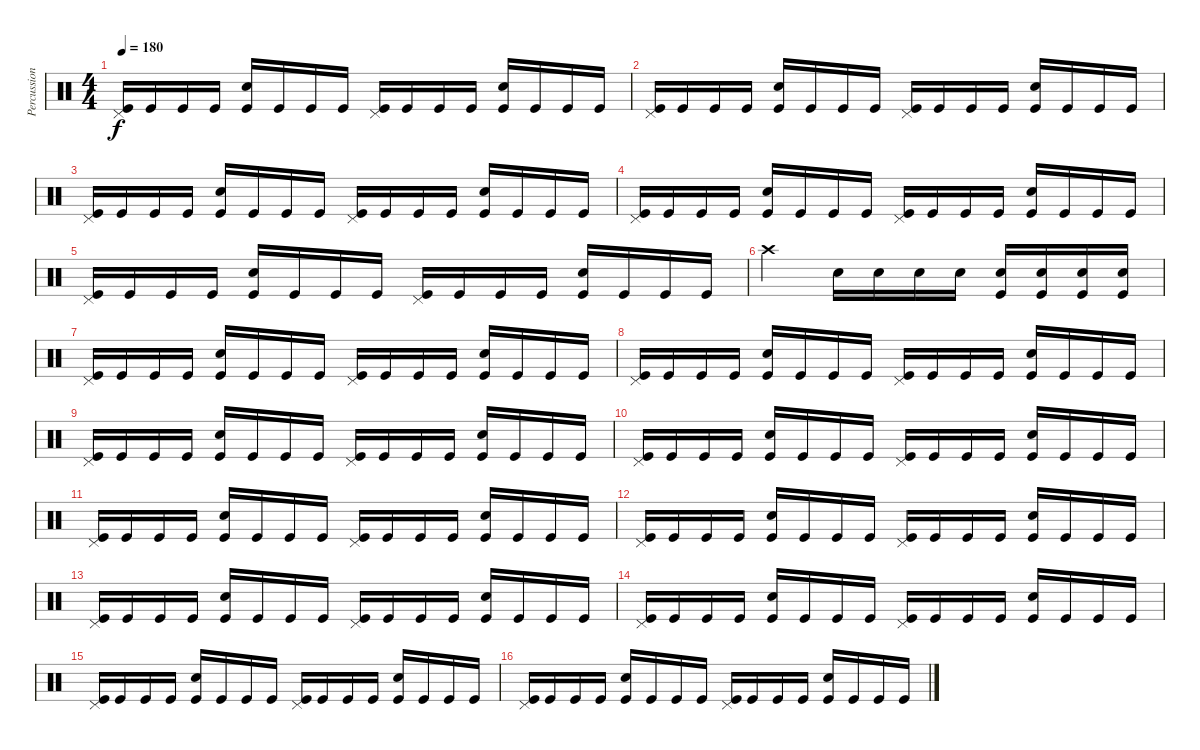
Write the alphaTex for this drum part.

\track ("Percussion" "Percussion") {instrument percussion}
\staff {score}
\articulation defaults
\ts (4 4)
\tempo 180
\clef neutral
\ks c
("Pedal Hi-Hat (hit)" "Kick (hit)").16{dy f} "Kick (hit)".16 "Kick (hit)".16 "Kick (hit)".16 ("Electric Snare (hit)" "Kick (hit)").16 "Kick (hit)".16 "Kick (hit)".16 "Kick (hit)".16 ("Pedal Hi-Hat (hit)" "Kick (hit)").16 "Kick (hit)".16 "Kick (hit)".16 "Kick (hit)".16 ("Electric Snare (hit)" "Kick (hit)").16 "Kick (hit)".16 "Kick (hit)".16 "Kick (hit)".16 |
("Pedal Hi-Hat (hit)" "Kick (hit)").16 "Kick (hit)".16 "Kick (hit)".16 "Kick (hit)".16 ("Electric Snare (hit)" "Kick (hit)").16 "Kick (hit)".16 "Kick (hit)".16 "Kick (hit)".16 ("Pedal Hi-Hat (hit)" "Kick (hit)").16 "Kick (hit)".16 "Kick (hit)".16 "Kick (hit)".16 ("Electric Snare (hit)" "Kick (hit)").16 "Kick (hit)".16 "Kick (hit)".16 "Kick (hit)".16 |
("Pedal Hi-Hat (hit)" "Kick (hit)").16 "Kick (hit)".16 "Kick (hit)".16 "Kick (hit)".16 ("Electric Snare (hit)" "Kick (hit)").16 "Kick (hit)".16 "Kick (hit)".16 "Kick (hit)".16 ("Pedal Hi-Hat (hit)" "Kick (hit)").16 "Kick (hit)".16 "Kick (hit)".16 "Kick (hit)".16 ("Electric Snare (hit)" "Kick (hit)").16 "Kick (hit)".16 "Kick (hit)".16 "Kick (hit)".16 |
("Pedal Hi-Hat (hit)" "Kick (hit)").16 "Kick (hit)".16 "Kick (hit)".16 "Kick (hit)".16 ("Electric Snare (hit)" "Kick (hit)").16 "Kick (hit)".16 "Kick (hit)".16 "Kick (hit)".16 ("Pedal Hi-Hat (hit)" "Kick (hit)").16 "Kick (hit)".16 "Kick (hit)".16 "Kick (hit)".16 ("Electric Snare (hit)" "Kick (hit)").16 "Kick (hit)".16 "Kick (hit)".16 "Kick (hit)".16 |
("Pedal Hi-Hat (hit)" "Kick (hit)").16 "Kick (hit)".16 "Kick (hit)".16 "Kick (hit)".16 ("Electric Snare (hit)" "Kick (hit)").16 "Kick (hit)".16 "Kick (hit)".16 "Kick (hit)".16 ("Pedal Hi-Hat (hit)" "Kick (hit)").16 "Kick (hit)".16 "Kick (hit)".16 "Kick (hit)".16 ("Electric Snare (hit)" "Kick (hit)").16 "Kick (hit)".16 "Kick (hit)".16 "Kick (hit)".16 |
"Crash high (hit)".2 "Electric Snare (hit)".16 "Electric Snare (hit)".16 "Electric Snare (hit)".16 "Electric Snare (hit)".16 ("Electric Snare (hit)" "Kick (hit)").16 ("Electric Snare (hit)" "Kick (hit)").16 ("Electric Snare (hit)" "Kick (hit)").16 ("Electric Snare (hit)" "Kick (hit)").16 |
("Pedal Hi-Hat (hit)" "Kick (hit)").16 "Kick (hit)".16 "Kick (hit)".16 "Kick (hit)".16 ("Electric Snare (hit)" "Kick (hit)").16 "Kick (hit)".16 "Kick (hit)".16 "Kick (hit)".16 ("Pedal Hi-Hat (hit)" "Kick (hit)").16 "Kick (hit)".16 "Kick (hit)".16 "Kick (hit)".16 ("Electric Snare (hit)" "Kick (hit)").16 "Kick (hit)".16 "Kick (hit)".16 "Kick (hit)".16 |
("Pedal Hi-Hat (hit)" "Kick (hit)").16 "Kick (hit)".16 "Kick (hit)".16 "Kick (hit)".16 ("Electric Snare (hit)" "Kick (hit)").16 "Kick (hit)".16 "Kick (hit)".16 "Kick (hit)".16 ("Pedal Hi-Hat (hit)" "Kick (hit)").16 "Kick (hit)".16 "Kick (hit)".16 "Kick (hit)".16 ("Electric Snare (hit)" "Kick (hit)").16 "Kick (hit)".16 "Kick (hit)".16 "Kick (hit)".16 |
("Pedal Hi-Hat (hit)" "Kick (hit)").16 "Kick (hit)".16 "Kick (hit)".16 "Kick (hit)".16 ("Electric Snare (hit)" "Kick (hit)").16 "Kick (hit)".16 "Kick (hit)".16 "Kick (hit)".16 ("Pedal Hi-Hat (hit)" "Kick (hit)").16 "Kick (hit)".16 "Kick (hit)".16 "Kick (hit)".16 ("Electric Snare (hit)" "Kick (hit)").16 "Kick (hit)".16 "Kick (hit)".16 "Kick (hit)".16 |
("Pedal Hi-Hat (hit)" "Kick (hit)").16 "Kick (hit)".16 "Kick (hit)".16 "Kick (hit)".16 ("Electric Snare (hit)" "Kick (hit)").16 "Kick (hit)".16 "Kick (hit)".16 "Kick (hit)".16 ("Pedal Hi-Hat (hit)" "Kick (hit)").16 "Kick (hit)".16 "Kick (hit)".16 "Kick (hit)".16 ("Electric Snare (hit)" "Kick (hit)").16 "Kick (hit)".16 "Kick (hit)".16 "Kick (hit)".16 |
("Pedal Hi-Hat (hit)" "Kick (hit)").16 "Kick (hit)".16 "Kick (hit)".16 "Kick (hit)".16 ("Electric Snare (hit)" "Kick (hit)").16 "Kick (hit)".16 "Kick (hit)".16 "Kick (hit)".16 ("Pedal Hi-Hat (hit)" "Kick (hit)").16 "Kick (hit)".16 "Kick (hit)".16 "Kick (hit)".16 ("Electric Snare (hit)" "Kick (hit)").16 "Kick (hit)".16 "Kick (hit)".16 "Kick (hit)".16 |
("Pedal Hi-Hat (hit)" "Kick (hit)").16 "Kick (hit)".16 "Kick (hit)".16 "Kick (hit)".16 ("Electric Snare (hit)" "Kick (hit)").16 "Kick (hit)".16 "Kick (hit)".16 "Kick (hit)".16 ("Pedal Hi-Hat (hit)" "Kick (hit)").16 "Kick (hit)".16 "Kick (hit)".16 "Kick (hit)".16 ("Electric Snare (hit)" "Kick (hit)").16 "Kick (hit)".16 "Kick (hit)".16 "Kick (hit)".16 |
("Pedal Hi-Hat (hit)" "Kick (hit)").16 "Kick (hit)".16 "Kick (hit)".16 "Kick (hit)".16 ("Electric Snare (hit)" "Kick (hit)").16 "Kick (hit)".16 "Kick (hit)".16 "Kick (hit)".16 ("Pedal Hi-Hat (hit)" "Kick (hit)").16 "Kick (hit)".16 "Kick (hit)".16 "Kick (hit)".16 ("Electric Snare (hit)" "Kick (hit)").16 "Kick (hit)".16 "Kick (hit)".16 "Kick (hit)".16 |
("Pedal Hi-Hat (hit)" "Kick (hit)").16 "Kick (hit)".16 "Kick (hit)".16 "Kick (hit)".16 ("Electric Snare (hit)" "Kick (hit)").16 "Kick (hit)".16 "Kick (hit)".16 "Kick (hit)".16 ("Pedal Hi-Hat (hit)" "Kick (hit)").16 "Kick (hit)".16 "Kick (hit)".16 "Kick (hit)".16 ("Electric Snare (hit)" "Kick (hit)").16 "Kick (hit)".16 "Kick (hit)".16 "Kick (hit)".16 |
("Pedal Hi-Hat (hit)" "Kick (hit)").16 "Kick (hit)".16 "Kick (hit)".16 "Kick (hit)".16 ("Electric Snare (hit)" "Kick (hit)").16 "Kick (hit)".16 "Kick (hit)".16 "Kick (hit)".16 ("Pedal Hi-Hat (hit)" "Kick (hit)").16 "Kick (hit)".16 "Kick (hit)".16 "Kick (hit)".16 ("Electric Snare (hit)" "Kick (hit)").16 "Kick (hit)".16 "Kick (hit)".16 "Kick (hit)".16 |
("Pedal Hi-Hat (hit)" "Kick (hit)").16 "Kick (hit)".16 "Kick (hit)".16 "Kick (hit)".16 ("Electric Snare (hit)" "Kick (hit)").16 "Kick (hit)".16 "Kick (hit)".16 "Kick (hit)".16 ("Pedal Hi-Hat (hit)" "Kick (hit)").16 "Kick (hit)".16 "Kick (hit)".16 "Kick (hit)".16 ("Electric Snare (hit)" "Kick (hit)").16 "Kick (hit)".16 "Kick (hit)".16 "Kick (hit)".16
